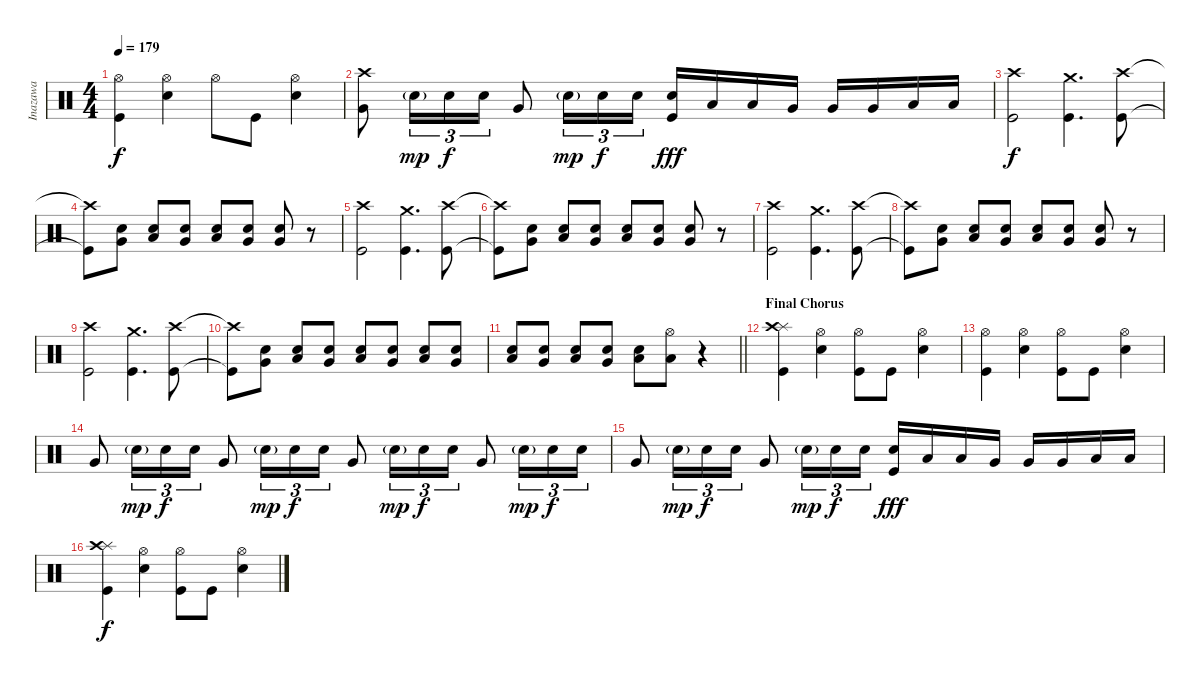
\track ("Inazawa" "Inazawa") {instrument percussion}
\staff {score}
\articulation defaults
\ts (4 4)
\tempo 179
\clef neutral
\ks c
("Hi-Hat (open)" "Kick (hit)").4{dy f} ("Hi-Hat (open)" "Snare (hit) 2").4 "Hi-Hat (open)".8 "Kick (hit)".8 ("Hi-Hat (open)" "Snare (hit) 2").4 |
("Crash high (hit)" "Very Low Tom (hit)").8 "Snare (hit) 2"{g}.16{tu (3 2) dy mp} "Snare (hit) 2".16{tu (3 2) dy f} "Snare (hit) 2".16{tu (3 2)} "Very Low Tom (hit)".8 "Snare (hit) 2"{g}.16{tu (3 2) dy mp} "Snare (hit) 2".16{tu (3 2) dy f} "Snare (hit) 2".16{tu (3 2)} ("Snare (hit) 2" "Kick (hit)").16{dy fff} "Low Tom (hit)".16 "Low Tom (hit)".16 "Very Low Tom (hit)".16 "Very Low Tom (hit)".16 "Very Low Tom (hit)".16 "Low Floor Tom (hit)".16 "Low Floor Tom (hit)".16 |
("Crash high (hit)" "Kick (hit)").2{dy f} ("Crash medium (hit)" "Kick (hit)").4{d} ("Crash high (hit)" "Kick (hit)").8 |
("Crash high (hit)"{t} "Kick (hit)"{t}).8 ("Snare (hit) 2" "Very Low Tom (hit)").8 ("Snare (hit) 2" "Low Tom (hit)").8 ("Snare (hit) 2" "Very Low Tom (hit)").8 ("Snare (hit) 2" "Low Tom (hit)").8 ("Snare (hit) 2" "Very Low Tom (hit)").8 ("Snare (hit) 2" "Very Low Tom (hit)").8 r.8 |
("Crash high (hit)" "Kick (hit)").2 ("Crash medium (hit)" "Kick (hit)").4{d} ("Crash high (hit)" "Kick (hit)").8 |
("Crash high (hit)"{t} "Kick (hit)"{t}).8 ("Snare (hit) 2" "Very Low Tom (hit)").8 ("Snare (hit) 2" "Low Tom (hit)").8 ("Snare (hit) 2" "Very Low Tom (hit)").8 ("Snare (hit) 2" "Low Tom (hit)").8 ("Snare (hit) 2" "Very Low Tom (hit)").8 ("Snare (hit) 2" "Very Low Tom (hit)").8 r.8 |
("Crash high (hit)" "Kick (hit)").2 ("Crash medium (hit)" "Kick (hit)").4{d} ("Crash high (hit)" "Kick (hit)").8 |
("Crash high (hit)"{t} "Kick (hit)"{t}).8 ("Snare (hit) 2" "Very Low Tom (hit)").8 ("Snare (hit) 2" "Low Tom (hit)").8 ("Snare (hit) 2" "Very Low Tom (hit)").8 ("Snare (hit) 2" "Low Tom (hit)").8 ("Snare (hit) 2" "Very Low Tom (hit)").8 ("Snare (hit) 2" "Very Low Tom (hit)").8 r.8 |
("Crash high (hit)" "Kick (hit)").2 ("Crash medium (hit)" "Kick (hit)").4{d} ("Crash high (hit)" "Kick (hit)").8 |
("Crash high (hit)"{t} "Kick (hit)"{t}).8 ("Snare (hit) 2" "Very Low Tom (hit)").8{volume 15} ("Snare (hit) 2" "Low Tom (hit)").8 ("Snare (hit) 2" "Very Low Tom (hit)").8 ("Snare (hit) 2" "Low Tom (hit)").8 ("Snare (hit) 2" "Very Low Tom (hit)").8 ("Snare (hit) 2" "Low Tom (hit)").8 ("Snare (hit) 2" "Very Low Tom (hit)").8 |
\barLineRight lightlight
("Snare (hit) 2" "Low Tom (hit)").8 ("Snare (hit) 2" "Very Low Tom (hit)").8 ("Snare (hit) 2" "Low Tom (hit)").8 ("Snare (hit) 2" "Very Low Tom (hit)").8 ("Snare (hit) 2" "Low Tom (hit)").8 ("Hi-Hat (open)" "Low Tom (hit)").8 r.4 |
\section ("" "Final Chorus")
("Splash (hit)" "Crash high (hit)" "Kick (hit)").4 ("Hi-Hat (open)" "Snare (hit) 2").4 ("Hi-Hat (open)" "Kick (hit)").8 "Kick (hit)".8 ("Hi-Hat (open)" "Snare (hit) 2").4 |
("Hi-Hat (open)" "Kick (hit)").4 ("Hi-Hat (open)" "Snare (hit) 2").4 ("Hi-Hat (open)" "Kick (hit)").8 "Kick (hit)".8 ("Hi-Hat (open)" "Snare (hit) 2").4 |
"Very Low Tom (hit)".8 "Snare (hit) 2"{g}.16{tu (3 2) dy mp} "Snare (hit) 2".16{tu (3 2) dy f} "Snare (hit) 2".16{tu (3 2)} "Very Low Tom (hit)".8 "Snare (hit) 2"{g}.16{tu (3 2) dy mp} "Snare (hit) 2".16{tu (3 2) dy f} "Snare (hit) 2".16{tu (3 2)} "Very Low Tom (hit)".8 "Snare (hit) 2"{g}.16{tu (3 2) dy mp} "Snare (hit) 2".16{tu (3 2) dy f} "Snare (hit) 2".16{tu (3 2)} "Very Low Tom (hit)".8 "Snare (hit) 2"{g}.16{tu (3 2) dy mp} "Snare (hit) 2".16{tu (3 2) dy f} "Snare (hit) 2".16{tu (3 2)} |
"Very Low Tom (hit)".8 "Snare (hit) 2"{g}.16{tu (3 2) dy mp} "Snare (hit) 2".16{tu (3 2) dy f} "Snare (hit) 2".16{tu (3 2)} "Very Low Tom (hit)".8 "Snare (hit) 2"{g}.16{tu (3 2) dy mp} "Snare (hit) 2".16{tu (3 2) dy f} "Snare (hit) 2".16{tu (3 2)} ("Snare (hit) 2" "Kick (hit)").16{dy fff} "Low Tom (hit)".16 "Low Tom (hit)".16 "Very Low Tom (hit)".16 "Very Low Tom (hit)".16 "Very Low Tom (hit)".16 "Low Floor Tom (hit)".16 "Low Floor Tom (hit)".16 |
("Splash (hit)" "Crash high (hit)" "Kick (hit)").4{dy f} ("Hi-Hat (open)" "Snare (hit) 2").4 ("Hi-Hat (open)" "Kick (hit)").8 "Kick (hit)".8 ("Hi-Hat (open)" "Snare (hit) 2").4
